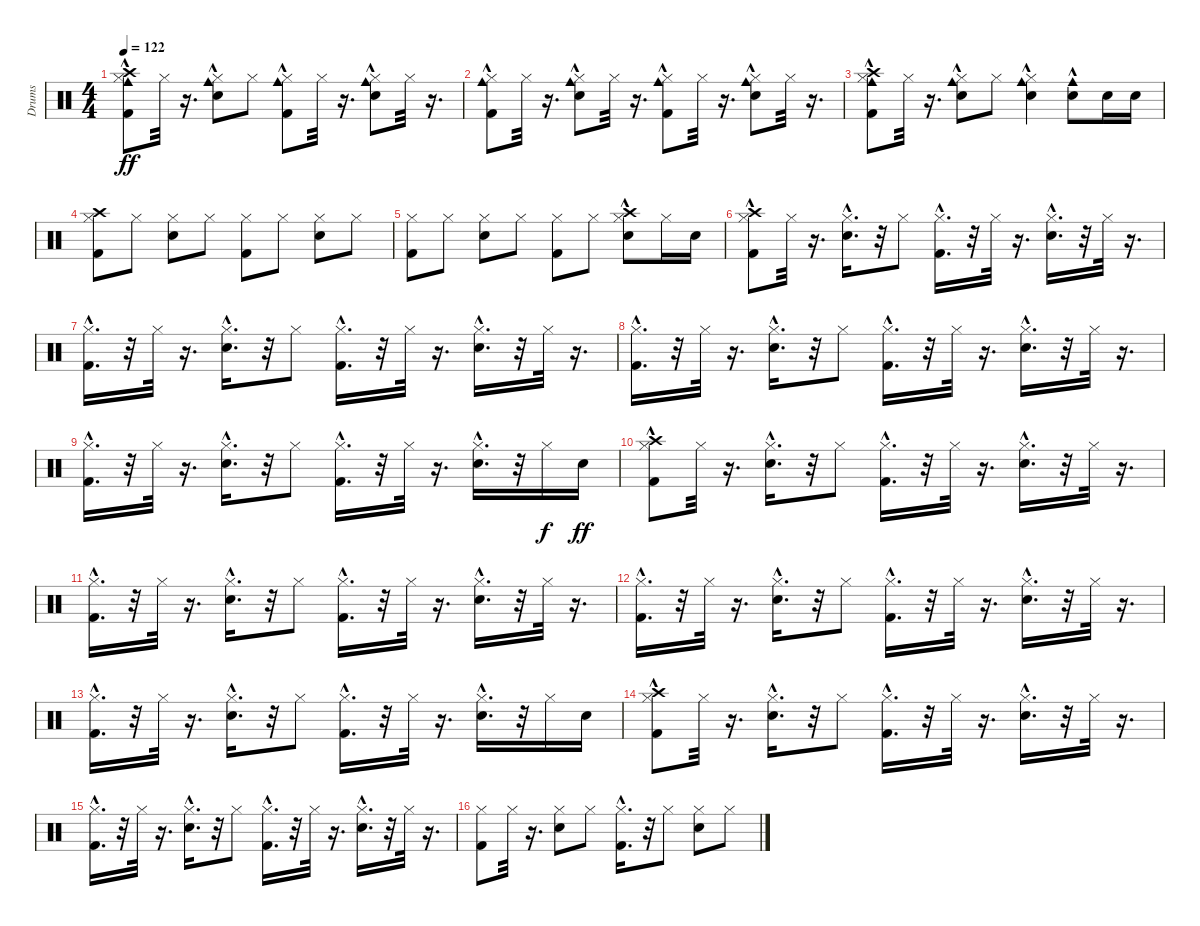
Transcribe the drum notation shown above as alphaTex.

\track ("Drums" "Drums") {instrument percussion}
\staff {score}
\articulation defaults
\ts (4 4)
\tempo 122
\clef neutral
\ks c
("Kick (hit) 2"{hac} "Hi-Hat (closed)"{hac} "Crash high (hit)" "Cowbell medium (hit)"{hac}).8{dy ff} "Hi-Hat (closed)".32 r.16{d} ("Snare (hit) 2"{hac} "Hi-Hat (closed)"{hac} "Cowbell medium (hit)"{hac}).8 "Hi-Hat (closed)".8 ("Kick (hit) 2"{hac} "Hi-Hat (closed)"{hac} "Cowbell medium (hit)"{hac}).8 "Hi-Hat (closed)".32 r.16{d} ("Snare (hit) 2"{hac} "Hi-Hat (closed)"{hac} "Cowbell medium (hit)"{hac}).8 "Hi-Hat (closed)".32 r.16{d} |
("Kick (hit) 2"{hac} "Hi-Hat (closed)"{hac} "Cowbell medium (hit)"{hac}).8 "Hi-Hat (closed)".32 r.16{d} ("Snare (hit) 2"{hac} "Hi-Hat (closed)"{hac} "Cowbell medium (hit)"{hac}).8 "Hi-Hat (closed)".32 r.16{d} ("Kick (hit) 2"{hac} "Hi-Hat (closed)"{hac} "Cowbell medium (hit)").8 "Hi-Hat (closed)".32 r.16{d} ("Snare (hit) 2"{hac} "Hi-Hat (closed)"{hac} "Cowbell medium (hit)"{hac}).8 "Hi-Hat (closed)".32 r.16{d} |
("Kick (hit) 2"{hac} "Hi-Hat (closed)"{hac} "Crash high (hit)" "Cowbell medium (hit)"{hac}).8 "Hi-Hat (closed)".32 r.16{d} ("Snare (hit) 2"{hac} "Hi-Hat (closed)"{hac} "Cowbell medium (hit)"{hac}).8 "Hi-Hat (closed)".8 ("Snare (hit) 2" "Hi-Hat (closed)" "Cowbell medium (hit)"{hac}).4 ("Snare (hit) 2" "Cowbell medium (hit)"{hac}).8 "Snare (hit) 2".16 "Snare (hit) 2".16 |
("Kick (hit) 2" "Hi-Hat (closed)" "Crash high (hit)").8 "Hi-Hat (closed)".8 ("Snare (hit) 2" "Hi-Hat (closed)").8 "Hi-Hat (closed)".8 ("Kick (hit) 2" "Hi-Hat (closed)").8 "Hi-Hat (closed)".8 ("Snare (hit) 2" "Hi-Hat (closed)").8 "Hi-Hat (closed)".8 |
("Kick (hit) 2" "Hi-Hat (closed)").8 "Hi-Hat (closed)".8 ("Snare (hit) 2" "Hi-Hat (closed)").8 "Hi-Hat (closed)".8 ("Kick (hit) 2" "Hi-Hat (closed)").8 "Hi-Hat (closed)".8 ("Snare (hit) 2"{hac} "Hi-Hat (closed)" "Crash high (hit)").8 "Hi-Hat (closed)".16 "Snare (hit) 2".16 |
("Kick (hit) 2"{hac} "Hi-Hat (closed)"{hac} "Crash high (hit)").8 "Hi-Hat (closed)".32 r.16{d} ("Snare (hit) 2"{hac} "Hi-Hat (closed)"{hac}).16{d} r.32 "Hi-Hat (closed)".8 ("Kick (hit) 2"{hac} "Hi-Hat (closed)"{hac}).16{d} r.32 "Hi-Hat (closed)".32 r.16{d} ("Snare (hit) 2"{hac} "Hi-Hat (closed)"{hac}).16{d} r.32 "Hi-Hat (closed)".32 r.16{d} |
("Kick (hit) 2"{hac} "Hi-Hat (closed)"{hac}).16{d} r.32 "Hi-Hat (closed)".32 r.16{d} ("Snare (hit) 2"{hac} "Hi-Hat (closed)"{hac}).16{d} r.32 "Hi-Hat (closed)".8 ("Kick (hit) 2"{hac} "Hi-Hat (closed)"{hac}).16{d} r.32 "Hi-Hat (closed)".32 r.16{d} ("Snare (hit) 2"{hac} "Hi-Hat (closed)"{hac}).16{d} r.32 "Hi-Hat (closed)".32 r.16{d} |
("Kick (hit) 2"{hac} "Hi-Hat (closed)"{hac}).16{d} r.32 "Hi-Hat (closed)".32 r.16{d} ("Snare (hit) 2"{hac} "Hi-Hat (closed)"{hac}).16{d} r.32 "Hi-Hat (closed)".8 ("Kick (hit) 2"{hac} "Hi-Hat (closed)"{hac}).16{d} r.32 "Hi-Hat (closed)".32 r.16{d} ("Snare (hit) 2"{hac} "Hi-Hat (closed)"{hac}).16{d} r.32 "Hi-Hat (closed)".32 r.16{d} |
("Kick (hit) 2"{hac} "Hi-Hat (closed)"{hac}).16{d} r.32 "Hi-Hat (closed)".32 r.16{d} ("Snare (hit) 2"{hac} "Hi-Hat (closed)"{hac}).16{d} r.32 "Hi-Hat (closed)".8 ("Kick (hit) 2"{hac} "Hi-Hat (closed)"{hac}).16{d} r.32 "Hi-Hat (closed)".32 r.16{d} ("Snare (hit) 2"{hac} "Hi-Hat (closed)"{hac}).16{d} r.32 "Hi-Hat (closed)".16{dy f} "Snare (hit) 2".16{dy ff} |
("Kick (hit) 2"{hac} "Hi-Hat (closed)"{hac} "Crash high (hit)").8 "Hi-Hat (closed)".32 r.16{d} ("Snare (hit) 2"{hac} "Hi-Hat (closed)"{hac}).16{d} r.32 "Hi-Hat (closed)".8 ("Kick (hit) 2"{hac} "Hi-Hat (closed)"{hac}).16{d} r.32 "Hi-Hat (closed)".32 r.16{d} ("Snare (hit) 2"{hac} "Hi-Hat (closed)"{hac}).16{d} r.32 "Hi-Hat (closed)".32 r.16{d} |
("Kick (hit) 2"{hac} "Hi-Hat (closed)"{hac}).16{d} r.32 "Hi-Hat (closed)".32 r.16{d} ("Snare (hit) 2"{hac} "Hi-Hat (closed)"{hac}).16{d} r.32 "Hi-Hat (closed)".8 ("Kick (hit) 2"{hac} "Hi-Hat (closed)"{hac}).16{d} r.32 "Hi-Hat (closed)".32 r.16{d} ("Snare (hit) 2"{hac} "Hi-Hat (closed)"{hac}).16{d} r.32 "Hi-Hat (closed)".32 r.16{d} |
("Kick (hit) 2"{hac} "Hi-Hat (closed)"{hac}).16{d} r.32 "Hi-Hat (closed)".32 r.16{d} ("Snare (hit) 2"{hac} "Hi-Hat (closed)"{hac}).16{d} r.32 "Hi-Hat (closed)".8 ("Kick (hit) 2"{hac} "Hi-Hat (closed)"{hac}).16{d} r.32 "Hi-Hat (closed)".32 r.16{d} ("Snare (hit) 2"{hac} "Hi-Hat (closed)"{hac}).16{d} r.32 "Hi-Hat (closed)".32 r.16{d} |
("Kick (hit) 2"{hac} "Hi-Hat (closed)"{hac}).16{d} r.32 "Hi-Hat (closed)".32 r.16{d} ("Snare (hit) 2"{hac} "Hi-Hat (closed)"{hac}).16{d} r.32 "Hi-Hat (closed)".8 ("Kick (hit) 2"{hac} "Hi-Hat (closed)"{hac}).16{d} r.32 "Hi-Hat (closed)".32 r.16{d} ("Snare (hit) 2"{hac} "Hi-Hat (closed)"{hac}).16{d} r.32 "Hi-Hat (closed)".16 "Snare (hit) 2".16 |
("Kick (hit) 2"{hac} "Hi-Hat (closed)"{hac} "Crash high (hit)").8 "Hi-Hat (closed)".32 r.16{d} ("Snare (hit) 2"{hac} "Hi-Hat (closed)"{hac}).16{d} r.32 "Hi-Hat (closed)".8 ("Kick (hit) 2"{hac} "Hi-Hat (closed)"{hac}).16{d} r.32 "Hi-Hat (closed)".32 r.16{d} ("Snare (hit) 2"{hac} "Hi-Hat (closed)"{hac}).16{d} r.32 "Hi-Hat (closed)".32 r.16{d} |
("Kick (hit) 2"{hac} "Hi-Hat (closed)"{hac}).16{d} r.32 "Hi-Hat (closed)".32 r.16{d} ("Snare (hit) 2"{hac} "Hi-Hat (closed)"{hac}).16{d} r.32 "Hi-Hat (closed)".8 ("Kick (hit) 2"{hac} "Hi-Hat (closed)"{hac}).16{d} r.32 "Hi-Hat (closed)".32 r.16{d} ("Snare (hit) 2"{hac} "Hi-Hat (closed)"{hac}).16{d} r.32 "Hi-Hat (closed)".32 r.16{d} |
("Kick (hit) 2" "Hi-Hat (closed)").8 "Hi-Hat (closed)".32 r.16{d} ("Snare (hit) 2" "Hi-Hat (closed)").8 "Hi-Hat (closed)".8 ("Kick (hit) 2"{hac} "Hi-Hat (closed)"{hac}).16{d} r.32 "Hi-Hat (closed)".8 ("Snare (hit) 2" "Hi-Hat (closed)").8 "Hi-Hat (closed)".8
